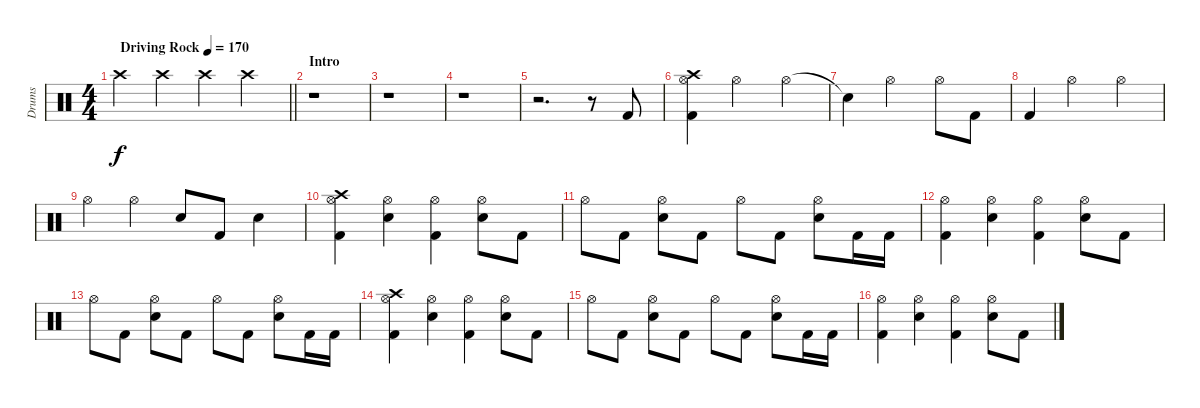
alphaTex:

\track ("Drums" "Drums") {instrument percussion}
\staff {score}
\articulation defaults
\ts (4 4)
\tempo (170 "Driving Rock")
\clef neutral
\barLineRight lightlight
\ks c "Crash high (hit)".4{dy f} "Crash high (hit)".4 "Crash high (hit)".4 "Crash high (hit)".4
|
\section ("" "Intro")
r.1 |
r.1 |
r.1 |
r.2{d} r.8 "Kick (hit) 2".8 |
("Crash high (hit)" "Hi-Hat (open)" "Kick (hit) 2").4 "Hi-Hat (open)".2 "Hi-Hat (open)".4 |
"Snare (hit)"{t}.4 "Hi-Hat (open)".2 "Hi-Hat (open)".8 "Kick (hit) 2".8 |
"Kick (hit) 2".4 "Hi-Hat (open)".2 "Hi-Hat (open)".4 |
"Hi-Hat (open)".4 "Hi-Hat (open)".4 "Electric Snare (hit)".8 "Kick (hit) 2".8 "Electric Snare (hit)".4 |
("Crash high (hit)" "Hi-Hat (open)" "Kick (hit) 2").4 ("Hi-Hat (open)" "Electric Snare (hit)").4 ("Hi-Hat (open)" "Kick (hit) 2").4 ("Hi-Hat (open)" "Electric Snare (hit)").8 "Kick (hit) 2".8 |
"Hi-Hat (open)".8 "Kick (hit) 2".8 ("Hi-Hat (open)" "Electric Snare (hit)").8 "Kick (hit) 2".8 "Hi-Hat (open)".8 "Kick (hit) 2".8 ("Hi-Hat (open)" "Electric Snare (hit)").8 "Kick (hit) 2".16 "Kick (hit) 2".16 |
("Hi-Hat (open)" "Kick (hit) 2").4 ("Hi-Hat (open)" "Electric Snare (hit)").4 ("Hi-Hat (open)" "Kick (hit) 2").4 ("Hi-Hat (open)" "Electric Snare (hit)").8 "Kick (hit) 2".8 |
"Hi-Hat (open)".8 "Kick (hit) 2".8 ("Hi-Hat (open)" "Electric Snare (hit)").8 "Kick (hit) 2".8 "Hi-Hat (open)".8 "Kick (hit) 2".8 ("Hi-Hat (open)" "Electric Snare (hit)").8 "Kick (hit) 2".16 "Kick (hit) 2".16 |
("Crash high (hit)" "Hi-Hat (open)" "Kick (hit) 2").4 ("Hi-Hat (open)" "Electric Snare (hit)").4 ("Hi-Hat (open)" "Kick (hit) 2").4 ("Hi-Hat (open)" "Electric Snare (hit)").8 "Kick (hit) 2".8 |
"Hi-Hat (open)".8 "Kick (hit) 2".8 ("Hi-Hat (open)" "Electric Snare (hit)").8 "Kick (hit) 2".8 "Hi-Hat (open)".8 "Kick (hit) 2".8 ("Hi-Hat (open)" "Electric Snare (hit)").8 "Kick (hit) 2".16 "Kick (hit) 2".16 |
("Hi-Hat (open)" "Kick (hit) 2").4 ("Hi-Hat (open)" "Electric Snare (hit)").4 ("Hi-Hat (open)" "Kick (hit) 2").4 ("Hi-Hat (open)" "Electric Snare (hit)").8 "Kick (hit) 2".8
